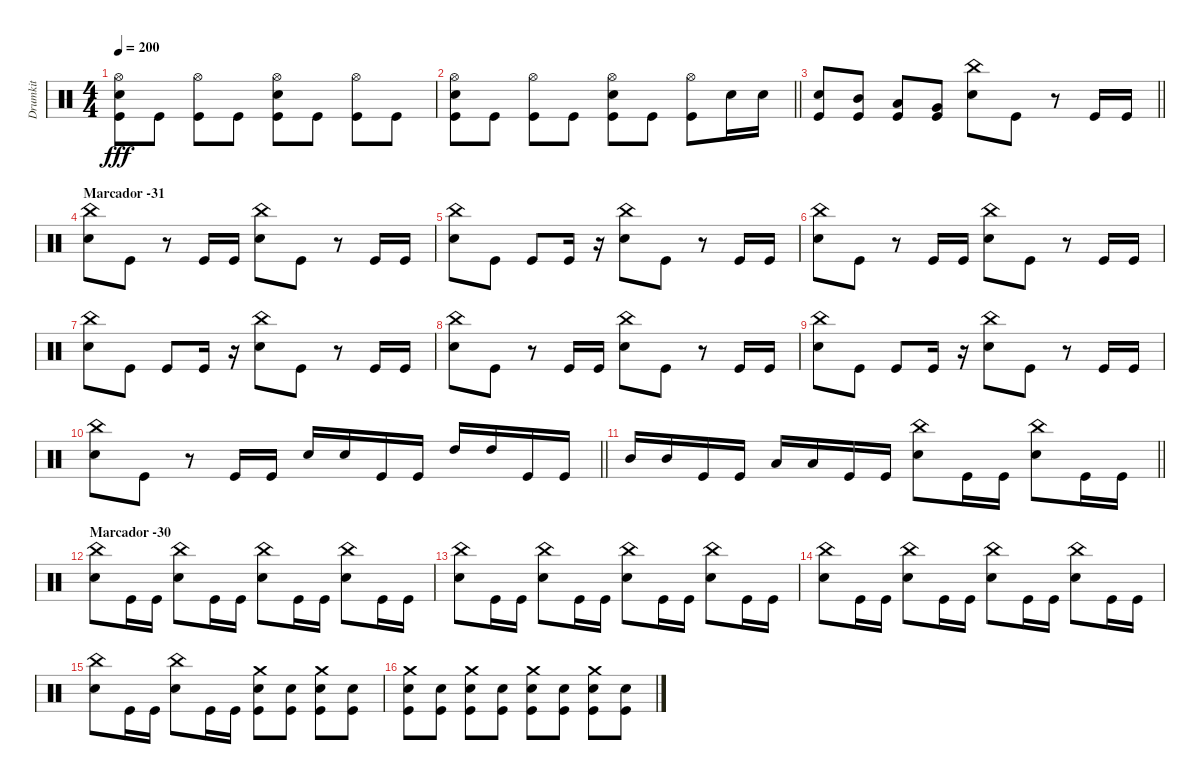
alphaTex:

\track ("Drumkit" "Drumkit") {instrument percussion}
\staff {score}
\articulation defaults
\ts (4 4)
\tempo 200
\clef neutral
\ks c
("Hi-Hat (open)" "Snare (hit) 2" "Kick (hit)").8{dy fff} "Kick (hit)".8 ("Hi-Hat (open)" "Kick (hit)").8 "Kick (hit)".8 ("Hi-Hat (open)" "Snare (hit) 2" "Kick (hit)").8 "Kick (hit)".8 ("Hi-Hat (open)" "Kick (hit)").8 "Kick (hit)".8 |
\barLineRight lightlight
("Hi-Hat (open)" "Snare (hit) 2" "Kick (hit)").8 "Kick (hit)".8 ("Hi-Hat (open)" "Kick (hit)").8 "Kick (hit)".8 ("Hi-Hat (open)" "Snare (hit) 2" "Kick (hit)").8 "Kick (hit)".8 ("Hi-Hat (open)" "Kick (hit)").8 "Snare (hit) 2".16 "Snare (hit) 2".16 |
\barLineRight lightlight
("Snare (hit) 2" "Kick (hit)").8 ("Mid Tom (hit)" "Kick (hit)").8 ("Low Tom (hit)" "Kick (hit)").8 ("Very Low Tom (hit)" "Kick (hit)").8 ("China (hit)" "Snare (hit) 2").8 "Kick (hit)".8 r.8 "Kick (hit)".16 "Kick (hit)".16 |
\section ("" "Marcador -31")
("China (hit)" "Snare (hit) 2").8 "Kick (hit)".8 r.8 "Kick (hit)".16 "Kick (hit)".16 ("China (hit)" "Snare (hit) 2").8 "Kick (hit)".8 r.8 "Kick (hit)".16 "Kick (hit)".16 |
("China (hit)" "Snare (hit) 2").8 "Kick (hit)".8 "Kick (hit)".8 "Kick (hit)".16 r.16 ("China (hit)" "Snare (hit) 2").8 "Kick (hit)".8 r.8 "Kick (hit)".16 "Kick (hit)".16 |
("China (hit)" "Snare (hit) 2").8 "Kick (hit)".8 r.8 "Kick (hit)".16 "Kick (hit)".16 ("China (hit)" "Snare (hit) 2").8 "Kick (hit)".8 r.8 "Kick (hit)".16 "Kick (hit)".16 |
("China (hit)" "Snare (hit) 2").8 "Kick (hit)".8 "Kick (hit)".8 "Kick (hit)".16 r.16 ("China (hit)" "Snare (hit) 2").8 "Kick (hit)".8 r.8 "Kick (hit)".16 "Kick (hit)".16 |
("China (hit)" "Snare (hit) 2").8 "Kick (hit)".8 r.8 "Kick (hit)".16 "Kick (hit)".16 ("China (hit)" "Snare (hit) 2").8 "Kick (hit)".8 r.8 "Kick (hit)".16 "Kick (hit)".16 |
("China (hit)" "Snare (hit) 2").8 "Kick (hit)".8 "Kick (hit)".8 "Kick (hit)".16 r.16 ("China (hit)" "Snare (hit) 2").8 "Kick (hit)".8 r.8 "Kick (hit)".16 "Kick (hit)".16 |
\barLineRight lightlight
("China (hit)" "Snare (hit) 2").8 "Kick (hit)".8 r.8 "Kick (hit)".16 "Kick (hit)".16 "Snare (hit) 2".16 "Snare (hit) 2".16 "Kick (hit)".16 "Kick (hit)".16 "High Tom (hit)".16 "High Tom (hit)".16 "Kick (hit)".16 "Kick (hit)".16 |
\barLineRight lightlight "Mid Tom (hit)".16 "Mid Tom (hit)".16 "Kick (hit)".16 "Kick (hit)".16 "Low Tom (hit)".16 "Low Tom (hit)".16 "Kick (hit)".16 "Kick (hit)".16
("China (hit)" "Snare (hit) 2").8 "Kick (hit)".16 "Kick (hit)".16 ("China (hit)" "Snare (hit) 2").8 "Kick (hit)".16 "Kick (hit)".16 |
\section ("" "Marcador -30")
("China (hit)" "Snare (hit) 2").8 "Kick (hit)".16 "Kick (hit)".16 ("China (hit)" "Snare (hit) 2").8 "Kick (hit)".16 "Kick (hit)".16 ("China (hit)" "Snare (hit) 2").8 "Kick (hit)".16 "Kick (hit)".16 ("China (hit)" "Snare (hit) 2").8 "Kick (hit)".16 "Kick (hit)".16 |
("China (hit)" "Snare (hit) 2").8 "Kick (hit)".16 "Kick (hit)".16 ("China (hit)" "Snare (hit) 2").8 "Kick (hit)".16 "Kick (hit)".16 ("China (hit)" "Snare (hit) 2").8 "Kick (hit)".16 "Kick (hit)".16 ("China (hit)" "Snare (hit) 2").8 "Kick (hit)".16 "Kick (hit)".16 |
("China (hit)" "Snare (hit) 2").8 "Kick (hit)".16 "Kick (hit)".16 ("China (hit)" "Snare (hit) 2").8 "Kick (hit)".16 "Kick (hit)".16 ("China (hit)" "Snare (hit) 2").8 "Kick (hit)".16 "Kick (hit)".16 ("China (hit)" "Snare (hit) 2").8 "Kick (hit)".16 "Kick (hit)".16 |
("China (hit)" "Snare (hit) 2").8 "Kick (hit)".16 "Kick (hit)".16 ("China (hit)" "Snare (hit) 2").8 "Kick (hit)".16 "Kick (hit)".16 ("Crash medium (hit)" "Snare (hit) 2" "Kick (hit)").8 ("Snare (hit) 2" "Kick (hit)").8 ("Crash medium (hit)" "Snare (hit) 2" "Kick (hit)").8 ("Snare (hit) 2" "Kick (hit)").8 |
("Crash medium (hit)" "Snare (hit) 2" "Kick (hit)").8 ("Snare (hit) 2" "Kick (hit)").8 ("Crash medium (hit)" "Snare (hit) 2" "Kick (hit)").8 ("Snare (hit) 2" "Kick (hit)").8 ("Crash medium (hit)" "Snare (hit) 2" "Kick (hit)").8 ("Snare (hit) 2" "Kick (hit)").8 ("Crash medium (hit)" "Snare (hit) 2" "Kick (hit)").8 ("Snare (hit) 2" "Kick (hit)").8
